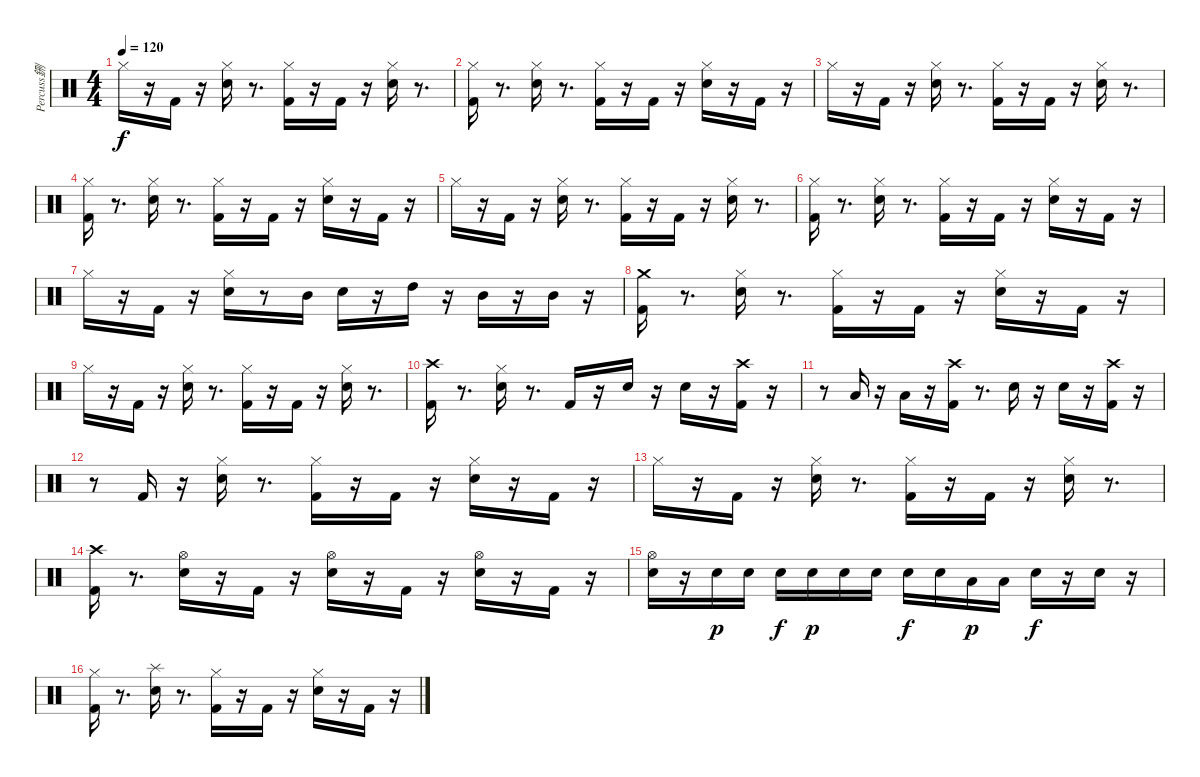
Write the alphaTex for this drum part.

\track ("Percuss鉶" "Percuss鉶") {instrument percussion}
\staff {score}
\articulation defaults
\ts (4 4)
\tempo 120
\clef neutral
\ks c "Hi-Hat (closed)".16{dy f}
r.16 "Kick (hit) 2".16 r.16 ("Hi-Hat (closed)" "Snare (hit) 2").16 r.8{d} ("Hi-Hat (closed)" "Kick (hit) 2").16 r.16 "Kick (hit) 2".16 r.16 ("Hi-Hat (closed)" "Snare (hit) 2").16 r.8{d} |
("Hi-Hat (closed)" "Kick (hit) 2").16 r.8{d} ("Hi-Hat (closed)" "Snare (hit) 2").16 r.8{d} ("Hi-Hat (closed)" "Kick (hit) 2").16 r.16 "Kick (hit) 2".16 r.16 ("Hi-Hat (closed)" "Snare (hit) 2").16 r.16 "Kick (hit) 2".16 r.16 |
"Hi-Hat (closed)".16 r.16 "Kick (hit) 2".16 r.16 ("Hi-Hat (closed)" "Snare (hit) 2").16 r.8{d} ("Hi-Hat (closed)" "Kick (hit) 2").16 r.16 "Kick (hit) 2".16 r.16 ("Hi-Hat (closed)" "Snare (hit) 2").16 r.8{d} |
("Hi-Hat (closed)" "Kick (hit) 2").16 r.8{d} ("Hi-Hat (closed)" "Snare (hit) 2").16 r.8{d} ("Hi-Hat (closed)" "Kick (hit) 2").16 r.16 "Kick (hit) 2".16 r.16 ("Hi-Hat (closed)" "Snare (hit) 2").16 r.16 "Kick (hit) 2".16 r.16 |
"Hi-Hat (closed)".16 r.16 "Kick (hit) 2".16 r.16 ("Hi-Hat (closed)" "Snare (hit) 2").16 r.8{d} ("Hi-Hat (closed)" "Kick (hit) 2").16 r.16 "Kick (hit) 2".16 r.16 ("Hi-Hat (closed)" "Snare (hit) 2").16 r.8{d} |
("Hi-Hat (closed)" "Kick (hit) 2").16 r.8{d} ("Hi-Hat (closed)" "Snare (hit) 2").16 r.8{d} ("Hi-Hat (closed)" "Kick (hit) 2").16 r.16 "Kick (hit) 2".16 r.16 ("Hi-Hat (closed)" "Snare (hit) 2").16 r.16 "Kick (hit) 2".16 r.16 |
"Hi-Hat (closed)".16 r.16 "Kick (hit) 2".16 r.16 ("Hi-Hat (closed)" "Snare (hit) 2").16 r.8 "Mid Tom (hit)".16 "Snare (hit) 2".16 r.16 "High Tom (hit)".16 r.16 "Mid Tom (hit)".16 r.16 "Mid Tom (hit)".16 r.16 |
("Crash medium (hit)" "Kick (hit) 2").16 r.8{d} ("Hi-Hat (closed)" "Snare (hit) 2").16 r.8{d} ("Hi-Hat (closed)" "Kick (hit) 2").16 r.16 "Kick (hit) 2".16 r.16 ("Hi-Hat (closed)" "Snare (hit) 2").16 r.16 "Kick (hit) 2".16 r.16 |
"Hi-Hat (closed)".16 r.16 "Kick (hit) 2".16 r.16 ("Hi-Hat (closed)" "Snare (hit) 2").16 r.8{d} ("Hi-Hat (closed)" "Kick (hit) 2").16 r.16 "Kick (hit) 2".16 r.16 ("Hi-Hat (closed)" "Snare (hit) 2").16 r.8{d} |
("Crash high (hit)" "Kick (hit) 2").16 r.8{d} ("Hi-Hat (closed)" "Snare (hit) 2").16 r.8{d} "Kick (hit) 2".16 r.16 "Snare (hit) 2".16 r.16 "Snare (hit) 2".16 r.16 ("Kick (hit) 2" "Crash high (hit)").16 r.16 |
r.8 "Low Tom (hit)".16 r.16 "Low Tom (hit)".16 r.16 ("Kick (hit) 2" "Crash high (hit)").16 r.8{d} "Snare (hit) 2".16 r.16 "Snare (hit) 2".16 r.16 ("Crash high (hit)" "Kick (hit) 2").16 r.16 |
r.8 "Kick (hit) 2".16 r.16 ("Hi-Hat (closed)" "Snare (hit) 2").16 r.8{d} ("Hi-Hat (closed)" "Kick (hit) 2").16 r.16 "Kick (hit) 2".16 r.16 ("Hi-Hat (closed)" "Snare (hit) 2").16 r.16 "Kick (hit) 2".16 r.16 |
"Hi-Hat (closed)".16 r.16 "Kick (hit) 2".16 r.16 ("Hi-Hat (closed)" "Snare (hit) 2").16 r.8{d} ("Hi-Hat (closed)" "Kick (hit) 2").16 r.16 "Kick (hit) 2".16 r.16 ("Hi-Hat (closed)" "Snare (hit) 2").16 r.8{d} |
("Crash high (hit)" "Kick (hit) 2").16 r.8{d} ("Hi-Hat (open)" "Snare (hit) 2").16 r.16 "Kick (hit) 2".16 r.16 ("Snare (hit) 2" "Hi-Hat (open)").16 r.16 "Kick (hit) 2".16 r.16 ("Hi-Hat (open)" "Snare (hit) 2").16 r.16 "Kick (hit) 2".16 r.16 |
("Snare (hit) 2" "Hi-Hat (open)").16 r.16 "Snare (hit) 2".16{dy p} "Snare (hit) 2".16 "Snare (hit) 2".16{dy f} "Snare (hit) 2".16{dy p} "Snare (hit) 2".16 "Snare (hit) 2".16 "Snare (hit) 2".16{dy f} "Snare (hit) 2".16 "Low Tom (hit)".16{dy p} "Low Tom (hit)".16 "Snare (hit) 2".16{dy f} r.16 "Snare (hit) 2".16 r.16 |
("Hi-Hat (closed)" "Kick (hit) 2").16 r.8{d} ("Splash (hit)" "Snare (hit) 2").16 r.8{d} ("Hi-Hat (closed)" "Kick (hit) 2").16 r.16 "Kick (hit) 2".16 r.16 ("Hi-Hat (closed)" "Snare (hit) 2").16 r.16 "Kick (hit) 2".16 r.16
